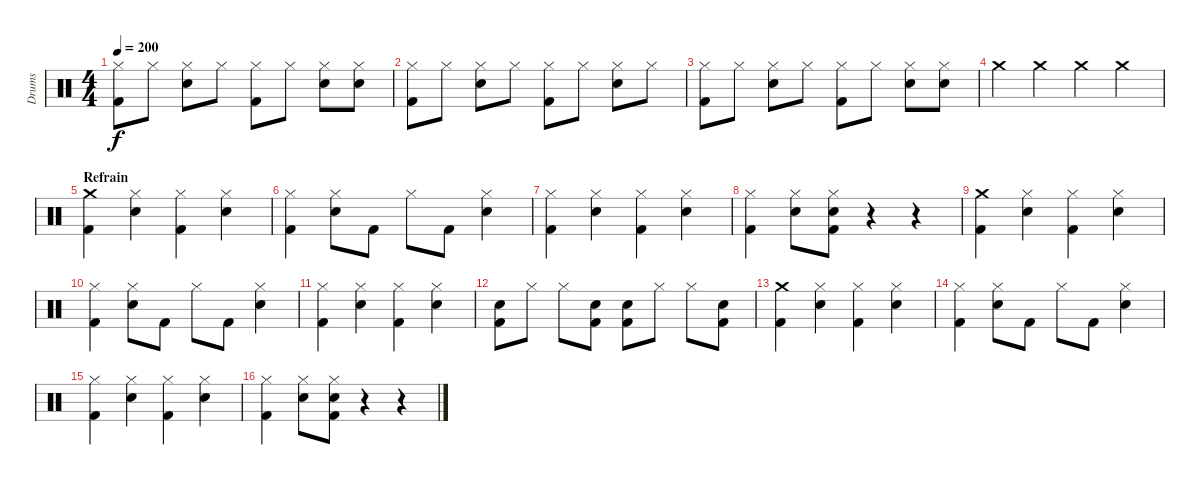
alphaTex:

\track ("Drums" "Drums") {instrument percussion}
\staff {score}
\articulation defaults
\ts (4 4)
\tempo 200
\clef neutral
\ks c
("Hi-Hat (closed)" "Kick (hit) 2").8{dy f} "Hi-Hat (closed)".8 ("Hi-Hat (closed)" "Snare (hit) 2").8 "Hi-Hat (closed)".8 ("Hi-Hat (closed)" "Kick (hit) 2").8 "Hi-Hat (closed)".8 ("Hi-Hat (closed)" "Snare (hit) 2").8 ("Hi-Hat (closed)" "Snare (hit) 2").8 |
("Hi-Hat (closed)" "Kick (hit) 2").8 "Hi-Hat (closed)".8 ("Hi-Hat (closed)" "Snare (hit) 2").8 "Hi-Hat (closed)".8 ("Hi-Hat (closed)" "Kick (hit) 2").8 "Hi-Hat (closed)".8 ("Hi-Hat (closed)" "Snare (hit) 2").8 "Hi-Hat (closed)".8 |
("Hi-Hat (closed)" "Kick (hit) 2").8 "Hi-Hat (closed)".8 ("Hi-Hat (closed)" "Snare (hit) 2").8 "Hi-Hat (closed)".8 ("Hi-Hat (closed)" "Kick (hit) 2").8 "Hi-Hat (closed)".8 ("Hi-Hat (closed)" "Snare (hit) 2").8 ("Hi-Hat (closed)" "Snare (hit) 2").8 |
"Crash medium (hit)".4 "Crash medium (hit)".4 "Crash medium (hit)".4 "Crash medium (hit)".4 |
\section ("" "Refrain")
("Crash medium (hit)" "Kick (hit) 2").4 ("Hi-Hat (closed)" "Snare (hit) 2").4 ("Hi-Hat (closed)" "Kick (hit) 2").4 ("Hi-Hat (closed)" "Snare (hit) 2").4 |
("Hi-Hat (closed)" "Kick (hit) 2").4 ("Hi-Hat (closed)" "Snare (hit) 2").8 "Kick (hit) 2".8 "Hi-Hat (closed)".8 "Kick (hit) 2".8 ("Hi-Hat (closed)" "Snare (hit) 2").4 |
("Hi-Hat (closed)" "Kick (hit) 2").4 ("Hi-Hat (closed)" "Snare (hit) 2").4 ("Hi-Hat (closed)" "Kick (hit) 2").4 ("Hi-Hat (closed)" "Snare (hit) 2").4 |
("Hi-Hat (closed)" "Kick (hit) 2").4 ("Hi-Hat (closed)" "Snare (hit) 2").8 ("Hi-Hat (closed)" "Snare (hit) 2" "Kick (hit) 2").8 r.4 r.4 |
("Crash medium (hit)" "Kick (hit) 2").4 ("Hi-Hat (closed)" "Snare (hit) 2").4 ("Hi-Hat (closed)" "Kick (hit) 2").4 ("Hi-Hat (closed)" "Snare (hit) 2").4 |
("Hi-Hat (closed)" "Kick (hit) 2").4 ("Hi-Hat (closed)" "Snare (hit) 2").8 "Kick (hit) 2".8 "Hi-Hat (closed)".8 "Kick (hit) 2".8 ("Hi-Hat (closed)" "Snare (hit) 2").4 |
("Hi-Hat (closed)" "Kick (hit) 2").4 ("Hi-Hat (closed)" "Snare (hit) 2").4 ("Hi-Hat (closed)" "Kick (hit) 2").4 ("Hi-Hat (closed)" "Snare (hit) 2").4 |
("Snare (hit) 2" "Kick (hit) 2").8 "Hi-Hat (closed)".8 "Hi-Hat (closed)".8 ("Snare (hit) 2" "Kick (hit) 2").8 ("Snare (hit) 2" "Kick (hit) 2").8 "Hi-Hat (closed)".8 "Hi-Hat (closed)".8 ("Snare (hit) 2" "Kick (hit) 2").8 |
("Crash medium (hit)" "Kick (hit) 2").4 ("Hi-Hat (closed)" "Snare (hit) 2").4 ("Hi-Hat (closed)" "Kick (hit) 2").4 ("Hi-Hat (closed)" "Snare (hit) 2").4 |
("Hi-Hat (closed)" "Kick (hit) 2").4 ("Hi-Hat (closed)" "Snare (hit) 2").8 "Kick (hit) 2".8 "Hi-Hat (closed)".8 "Kick (hit) 2".8 ("Hi-Hat (closed)" "Snare (hit) 2").4 |
("Hi-Hat (closed)" "Kick (hit) 2").4 ("Hi-Hat (closed)" "Snare (hit) 2").4 ("Hi-Hat (closed)" "Kick (hit) 2").4 ("Hi-Hat (closed)" "Snare (hit) 2").4 |
("Hi-Hat (closed)" "Kick (hit) 2").4 ("Hi-Hat (closed)" "Snare (hit) 2").8 ("Hi-Hat (closed)" "Snare (hit) 2" "Kick (hit) 2").8 r.4 r.4
